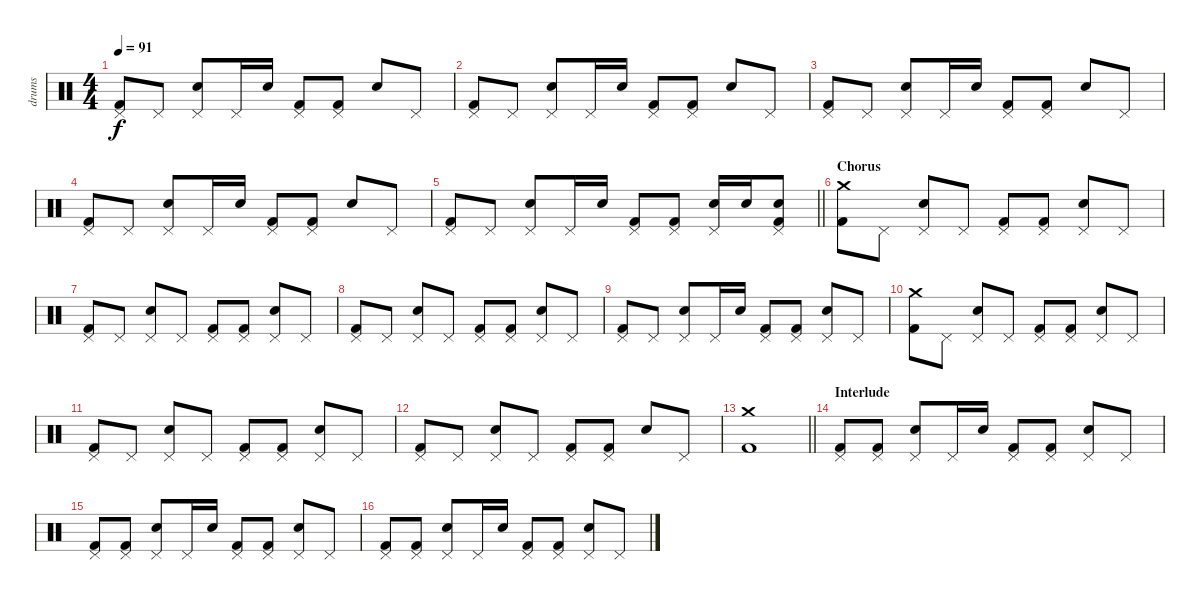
\track ("drums" "drums") {instrument percussion}
\staff {score}
\articulation defaults
\ts (4 4)
\tempo 91
\clef neutral
\ks c
("Pedal Hi-Hat (hit)" "Kick (hit) 2").8{dy f} "Pedal Hi-Hat (hit)".8 ("Pedal Hi-Hat (hit)" "Electric Snare (hit)").8 "Pedal Hi-Hat (hit)".16 "Electric Snare (hit)".16 ("Pedal Hi-Hat (hit)" "Kick (hit) 2").8 ("Pedal Hi-Hat (hit)" "Kick (hit) 2").8 "Electric Snare (hit)".8 "Pedal Hi-Hat (hit)".8 |
("Pedal Hi-Hat (hit)" "Kick (hit) 2").8 "Pedal Hi-Hat (hit)".8 ("Pedal Hi-Hat (hit)" "Electric Snare (hit)").8 "Pedal Hi-Hat (hit)".16 "Electric Snare (hit)".16 ("Pedal Hi-Hat (hit)" "Kick (hit) 2").8 ("Pedal Hi-Hat (hit)" "Kick (hit) 2").8 "Electric Snare (hit)".8 "Pedal Hi-Hat (hit)".8 |
("Pedal Hi-Hat (hit)" "Kick (hit) 2").8 "Pedal Hi-Hat (hit)".8 ("Pedal Hi-Hat (hit)" "Electric Snare (hit)").8 "Pedal Hi-Hat (hit)".16 "Electric Snare (hit)".16 ("Pedal Hi-Hat (hit)" "Kick (hit) 2").8 ("Pedal Hi-Hat (hit)" "Kick (hit) 2").8 "Electric Snare (hit)".8 "Pedal Hi-Hat (hit)".8 |
("Pedal Hi-Hat (hit)" "Kick (hit) 2").8 "Pedal Hi-Hat (hit)".8 ("Pedal Hi-Hat (hit)" "Electric Snare (hit)").8 "Pedal Hi-Hat (hit)".16 "Electric Snare (hit)".16 ("Pedal Hi-Hat (hit)" "Kick (hit) 2").8 ("Pedal Hi-Hat (hit)" "Kick (hit) 2").8 "Electric Snare (hit)".8 "Pedal Hi-Hat (hit)".8 |
\barLineRight lightlight
("Pedal Hi-Hat (hit)" "Kick (hit) 2").8 "Pedal Hi-Hat (hit)".8 ("Pedal Hi-Hat (hit)" "Electric Snare (hit)").8 "Pedal Hi-Hat (hit)".16 "Electric Snare (hit)".16 ("Pedal Hi-Hat (hit)" "Kick (hit) 2").8 ("Pedal Hi-Hat (hit)" "Kick (hit) 2").8 ("Pedal Hi-Hat (hit)" "Electric Snare (hit)").16 "Electric Snare (hit)".16 ("Pedal Hi-Hat (hit)" "Electric Snare (hit)" "Kick (hit) 2").8 |
\section ("" "Chorus")
("Crash medium (hit)" "Kick (hit) 2").8 "Pedal Hi-Hat (hit)".8 ("Pedal Hi-Hat (hit)" "Electric Snare (hit)").8 "Pedal Hi-Hat (hit)".8 ("Pedal Hi-Hat (hit)" "Kick (hit) 2").8 ("Pedal Hi-Hat (hit)" "Kick (hit) 2").8 ("Pedal Hi-Hat (hit)" "Electric Snare (hit)").8 "Pedal Hi-Hat (hit)".8 |
("Pedal Hi-Hat (hit)" "Kick (hit) 2").8 "Pedal Hi-Hat (hit)".8 ("Pedal Hi-Hat (hit)" "Electric Snare (hit)").8 "Pedal Hi-Hat (hit)".8 ("Pedal Hi-Hat (hit)" "Kick (hit) 2").8 ("Pedal Hi-Hat (hit)" "Kick (hit) 2").8 ("Pedal Hi-Hat (hit)" "Electric Snare (hit)").8 "Pedal Hi-Hat (hit)".8 |
("Pedal Hi-Hat (hit)" "Kick (hit) 2").8 "Pedal Hi-Hat (hit)".8 ("Pedal Hi-Hat (hit)" "Electric Snare (hit)").8 "Pedal Hi-Hat (hit)".8 ("Pedal Hi-Hat (hit)" "Kick (hit) 2").8 ("Pedal Hi-Hat (hit)" "Kick (hit) 2").8 ("Pedal Hi-Hat (hit)" "Electric Snare (hit)").8 "Pedal Hi-Hat (hit)".8 |
("Pedal Hi-Hat (hit)" "Kick (hit) 2").8 "Pedal Hi-Hat (hit)".8 ("Pedal Hi-Hat (hit)" "Electric Snare (hit)").8 "Pedal Hi-Hat (hit)".16 "Electric Snare (hit)".16 ("Pedal Hi-Hat (hit)" "Kick (hit) 2").8 ("Pedal Hi-Hat (hit)" "Kick (hit) 2").8 ("Pedal Hi-Hat (hit)" "Electric Snare (hit)").8 "Pedal Hi-Hat (hit)".8 |
("Crash medium (hit)" "Kick (hit) 2").8 "Pedal Hi-Hat (hit)".8 ("Pedal Hi-Hat (hit)" "Electric Snare (hit)").8 "Pedal Hi-Hat (hit)".8 ("Pedal Hi-Hat (hit)" "Kick (hit) 2").8 ("Pedal Hi-Hat (hit)" "Kick (hit) 2").8 ("Pedal Hi-Hat (hit)" "Electric Snare (hit)").8 "Pedal Hi-Hat (hit)".8 |
("Pedal Hi-Hat (hit)" "Kick (hit) 2").8 "Pedal Hi-Hat (hit)".8 ("Pedal Hi-Hat (hit)" "Electric Snare (hit)").8 "Pedal Hi-Hat (hit)".8 ("Pedal Hi-Hat (hit)" "Kick (hit) 2").8 ("Pedal Hi-Hat (hit)" "Kick (hit) 2").8 ("Pedal Hi-Hat (hit)" "Electric Snare (hit)").8 "Pedal Hi-Hat (hit)".8 |
("Pedal Hi-Hat (hit)" "Kick (hit) 2").8 "Pedal Hi-Hat (hit)".8 ("Pedal Hi-Hat (hit)" "Electric Snare (hit)").8 "Pedal Hi-Hat (hit)".8 ("Pedal Hi-Hat (hit)" "Kick (hit) 2").8 ("Pedal Hi-Hat (hit)" "Kick (hit) 2").8 "Electric Snare (hit)".8 "Pedal Hi-Hat (hit)".8 |
\barLineRight lightlight
("Crash medium (hit)" "Kick (hit) 2").1 |
\section ("" "Interlude")
("Pedal Hi-Hat (hit)" "Kick (hit) 2").8 ("Pedal Hi-Hat (hit)" "Kick (hit) 2").8 ("Pedal Hi-Hat (hit)" "Electric Snare (hit)").8 "Pedal Hi-Hat (hit)".16 "Electric Snare (hit)".16 ("Pedal Hi-Hat (hit)" "Kick (hit) 2").8 ("Pedal Hi-Hat (hit)" "Kick (hit) 2").8 ("Pedal Hi-Hat (hit)" "Electric Snare (hit)").8 "Pedal Hi-Hat (hit)".8 |
("Pedal Hi-Hat (hit)" "Kick (hit) 2").8 ("Pedal Hi-Hat (hit)" "Kick (hit) 2").8 ("Pedal Hi-Hat (hit)" "Electric Snare (hit)").8 "Pedal Hi-Hat (hit)".16 "Electric Snare (hit)".16 ("Pedal Hi-Hat (hit)" "Kick (hit) 2").8 ("Pedal Hi-Hat (hit)" "Kick (hit) 2").8 ("Pedal Hi-Hat (hit)" "Electric Snare (hit)").8 "Pedal Hi-Hat (hit)".8 |
("Pedal Hi-Hat (hit)" "Kick (hit) 2").8 ("Pedal Hi-Hat (hit)" "Kick (hit) 2").8 ("Pedal Hi-Hat (hit)" "Electric Snare (hit)").8 "Pedal Hi-Hat (hit)".16 "Electric Snare (hit)".16 ("Pedal Hi-Hat (hit)" "Kick (hit) 2").8 ("Pedal Hi-Hat (hit)" "Kick (hit) 2").8 ("Pedal Hi-Hat (hit)" "Electric Snare (hit)").8 "Pedal Hi-Hat (hit)".8
